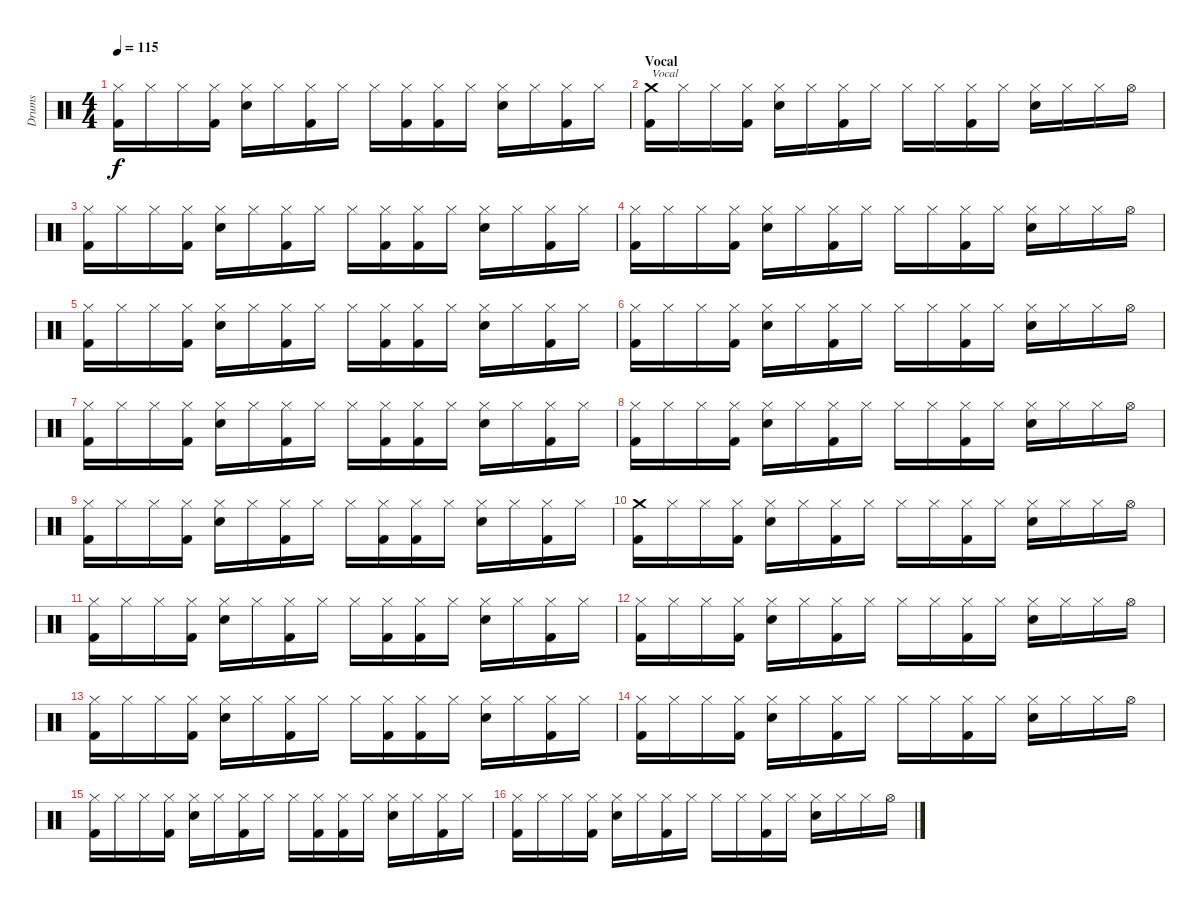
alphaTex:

\track ("Drums" "Drums") {instrument percussion}
\staff {score}
\articulation defaults
\ts (4 4)
\tempo 115
\clef neutral
\ks c
("Hi-Hat (closed)" "Kick (hit) 2").16{dy f} "Hi-Hat (closed)".16 "Hi-Hat (closed)".16 ("Hi-Hat (closed)" "Kick (hit) 2").16 ("Hi-Hat (closed)" "Electric Snare (hit)").16 "Hi-Hat (closed)".16 ("Hi-Hat (closed)" "Kick (hit) 2").16 "Hi-Hat (closed)".16 "Hi-Hat (closed)".16 ("Hi-Hat (closed)" "Kick (hit) 2").16 ("Hi-Hat (closed)" "Kick (hit) 2").16 "Hi-Hat (closed)".16 ("Hi-Hat (closed)" "Electric Snare (hit)").16 "Hi-Hat (closed)".16 ("Hi-Hat (closed)" "Kick (hit) 2").16 "Hi-Hat (closed)".16 |
\section ("" "Vocal")
("Crash medium (hit)" "Kick (hit) 2").16{txt "Vocal"} "Hi-Hat (closed)".16 "Hi-Hat (closed)".16 ("Hi-Hat (closed)" "Kick (hit) 2").16 ("Hi-Hat (closed)" "Electric Snare (hit)").16 "Hi-Hat (closed)".16 ("Hi-Hat (closed)" "Kick (hit) 2").16 "Hi-Hat (closed)".16 "Hi-Hat (closed)".16 "Hi-Hat (closed)".16 ("Hi-Hat (closed)" "Kick (hit) 2").16 "Hi-Hat (closed)".16 ("Hi-Hat (closed)" "Electric Snare (hit)").16 "Hi-Hat (closed)".16 "Hi-Hat (closed)".16 "Hi-Hat (open)".16 |
("Hi-Hat (closed)" "Kick (hit) 2").16 "Hi-Hat (closed)".16 "Hi-Hat (closed)".16 ("Hi-Hat (closed)" "Kick (hit) 2").16 ("Hi-Hat (closed)" "Electric Snare (hit)").16 "Hi-Hat (closed)".16 ("Hi-Hat (closed)" "Kick (hit) 2").16 "Hi-Hat (closed)".16 "Hi-Hat (closed)".16 ("Hi-Hat (closed)" "Kick (hit) 2").16 ("Hi-Hat (closed)" "Kick (hit) 2").16 "Hi-Hat (closed)".16 ("Hi-Hat (closed)" "Electric Snare (hit)").16 "Hi-Hat (closed)".16 ("Hi-Hat (closed)" "Kick (hit) 2").16 "Hi-Hat (closed)".16 |
("Hi-Hat (closed)" "Kick (hit) 2").16 "Hi-Hat (closed)".16 "Hi-Hat (closed)".16 ("Hi-Hat (closed)" "Kick (hit) 2").16 ("Hi-Hat (closed)" "Electric Snare (hit)").16 "Hi-Hat (closed)".16 ("Hi-Hat (closed)" "Kick (hit) 2").16 "Hi-Hat (closed)".16 "Hi-Hat (closed)".16 "Hi-Hat (closed)".16 ("Hi-Hat (closed)" "Kick (hit) 2").16 "Hi-Hat (closed)".16 ("Hi-Hat (closed)" "Electric Snare (hit)").16 "Hi-Hat (closed)".16 "Hi-Hat (closed)".16 "Hi-Hat (open)".16 |
("Hi-Hat (closed)" "Kick (hit) 2").16 "Hi-Hat (closed)".16 "Hi-Hat (closed)".16 ("Hi-Hat (closed)" "Kick (hit) 2").16 ("Hi-Hat (closed)" "Electric Snare (hit)").16 "Hi-Hat (closed)".16 ("Hi-Hat (closed)" "Kick (hit) 2").16 "Hi-Hat (closed)".16 "Hi-Hat (closed)".16 ("Hi-Hat (closed)" "Kick (hit) 2").16 ("Hi-Hat (closed)" "Kick (hit) 2").16 "Hi-Hat (closed)".16 ("Hi-Hat (closed)" "Electric Snare (hit)").16 "Hi-Hat (closed)".16 ("Hi-Hat (closed)" "Kick (hit) 2").16 "Hi-Hat (closed)".16 |
("Hi-Hat (closed)" "Kick (hit) 2").16 "Hi-Hat (closed)".16 "Hi-Hat (closed)".16 ("Hi-Hat (closed)" "Kick (hit) 2").16 ("Hi-Hat (closed)" "Electric Snare (hit)").16 "Hi-Hat (closed)".16 ("Hi-Hat (closed)" "Kick (hit) 2").16 "Hi-Hat (closed)".16 "Hi-Hat (closed)".16 "Hi-Hat (closed)".16 ("Hi-Hat (closed)" "Kick (hit) 2").16 "Hi-Hat (closed)".16 ("Hi-Hat (closed)" "Electric Snare (hit)").16 "Hi-Hat (closed)".16 "Hi-Hat (closed)".16 "Hi-Hat (open)".16 |
("Hi-Hat (closed)" "Kick (hit) 2").16 "Hi-Hat (closed)".16 "Hi-Hat (closed)".16 ("Hi-Hat (closed)" "Kick (hit) 2").16 ("Hi-Hat (closed)" "Electric Snare (hit)").16 "Hi-Hat (closed)".16 ("Hi-Hat (closed)" "Kick (hit) 2").16 "Hi-Hat (closed)".16 "Hi-Hat (closed)".16 ("Hi-Hat (closed)" "Kick (hit) 2").16 ("Hi-Hat (closed)" "Kick (hit) 2").16 "Hi-Hat (closed)".16 ("Hi-Hat (closed)" "Electric Snare (hit)").16 "Hi-Hat (closed)".16 ("Hi-Hat (closed)" "Kick (hit) 2").16 "Hi-Hat (closed)".16 |
("Hi-Hat (closed)" "Kick (hit) 2").16 "Hi-Hat (closed)".16 "Hi-Hat (closed)".16 ("Hi-Hat (closed)" "Kick (hit) 2").16 ("Hi-Hat (closed)" "Electric Snare (hit)").16 "Hi-Hat (closed)".16 ("Hi-Hat (closed)" "Kick (hit) 2").16 "Hi-Hat (closed)".16 "Hi-Hat (closed)".16 "Hi-Hat (closed)".16 ("Hi-Hat (closed)" "Kick (hit) 2").16 "Hi-Hat (closed)".16 ("Hi-Hat (closed)" "Electric Snare (hit)").16 "Hi-Hat (closed)".16 "Hi-Hat (closed)".16 "Hi-Hat (open)".16 |
("Hi-Hat (closed)" "Kick (hit) 2").16 "Hi-Hat (closed)".16 "Hi-Hat (closed)".16 ("Hi-Hat (closed)" "Kick (hit) 2").16 ("Hi-Hat (closed)" "Electric Snare (hit)").16 "Hi-Hat (closed)".16 ("Hi-Hat (closed)" "Kick (hit) 2").16 "Hi-Hat (closed)".16 "Hi-Hat (closed)".16 ("Hi-Hat (closed)" "Kick (hit) 2").16 ("Hi-Hat (closed)" "Kick (hit) 2").16 "Hi-Hat (closed)".16 ("Hi-Hat (closed)" "Electric Snare (hit)").16 "Hi-Hat (closed)".16 ("Hi-Hat (closed)" "Kick (hit) 2").16 "Hi-Hat (closed)".16 |
("Crash medium (hit)" "Kick (hit) 2").16 "Hi-Hat (closed)".16 "Hi-Hat (closed)".16 ("Hi-Hat (closed)" "Kick (hit) 2").16 ("Hi-Hat (closed)" "Electric Snare (hit)").16 "Hi-Hat (closed)".16 ("Hi-Hat (closed)" "Kick (hit) 2").16 "Hi-Hat (closed)".16 "Hi-Hat (closed)".16 "Hi-Hat (closed)".16 ("Hi-Hat (closed)" "Kick (hit) 2").16 "Hi-Hat (closed)".16 ("Hi-Hat (closed)" "Electric Snare (hit)").16 "Hi-Hat (closed)".16 "Hi-Hat (closed)".16 "Hi-Hat (open)".16 |
("Hi-Hat (closed)" "Kick (hit) 2").16 "Hi-Hat (closed)".16 "Hi-Hat (closed)".16 ("Hi-Hat (closed)" "Kick (hit) 2").16 ("Hi-Hat (closed)" "Electric Snare (hit)").16 "Hi-Hat (closed)".16 ("Hi-Hat (closed)" "Kick (hit) 2").16 "Hi-Hat (closed)".16 "Hi-Hat (closed)".16 ("Hi-Hat (closed)" "Kick (hit) 2").16 ("Hi-Hat (closed)" "Kick (hit) 2").16 "Hi-Hat (closed)".16 ("Hi-Hat (closed)" "Electric Snare (hit)").16 "Hi-Hat (closed)".16 ("Hi-Hat (closed)" "Kick (hit) 2").16 "Hi-Hat (closed)".16 |
("Hi-Hat (closed)" "Kick (hit) 2").16 "Hi-Hat (closed)".16 "Hi-Hat (closed)".16 ("Hi-Hat (closed)" "Kick (hit) 2").16 ("Hi-Hat (closed)" "Electric Snare (hit)").16 "Hi-Hat (closed)".16 ("Hi-Hat (closed)" "Kick (hit) 2").16 "Hi-Hat (closed)".16 "Hi-Hat (closed)".16 "Hi-Hat (closed)".16 ("Hi-Hat (closed)" "Kick (hit) 2").16 "Hi-Hat (closed)".16 ("Hi-Hat (closed)" "Electric Snare (hit)").16 "Hi-Hat (closed)".16 "Hi-Hat (closed)".16 "Hi-Hat (open)".16 |
("Hi-Hat (closed)" "Kick (hit) 2").16 "Hi-Hat (closed)".16 "Hi-Hat (closed)".16 ("Hi-Hat (closed)" "Kick (hit) 2").16 ("Hi-Hat (closed)" "Electric Snare (hit)").16 "Hi-Hat (closed)".16 ("Hi-Hat (closed)" "Kick (hit) 2").16 "Hi-Hat (closed)".16 "Hi-Hat (closed)".16 ("Hi-Hat (closed)" "Kick (hit) 2").16 ("Hi-Hat (closed)" "Kick (hit) 2").16 "Hi-Hat (closed)".16 ("Hi-Hat (closed)" "Electric Snare (hit)").16 "Hi-Hat (closed)".16 ("Hi-Hat (closed)" "Kick (hit) 2").16 "Hi-Hat (closed)".16 |
("Hi-Hat (closed)" "Kick (hit) 2").16 "Hi-Hat (closed)".16 "Hi-Hat (closed)".16 ("Hi-Hat (closed)" "Kick (hit) 2").16 ("Hi-Hat (closed)" "Electric Snare (hit)").16 "Hi-Hat (closed)".16 ("Hi-Hat (closed)" "Kick (hit) 2").16 "Hi-Hat (closed)".16 "Hi-Hat (closed)".16 "Hi-Hat (closed)".16 ("Hi-Hat (closed)" "Kick (hit) 2").16 "Hi-Hat (closed)".16 ("Hi-Hat (closed)" "Electric Snare (hit)").16 "Hi-Hat (closed)".16 "Hi-Hat (closed)".16 "Hi-Hat (open)".16 |
("Hi-Hat (closed)" "Kick (hit) 2").16 "Hi-Hat (closed)".16 "Hi-Hat (closed)".16 ("Hi-Hat (closed)" "Kick (hit) 2").16 ("Hi-Hat (closed)" "Electric Snare (hit)").16 "Hi-Hat (closed)".16 ("Hi-Hat (closed)" "Kick (hit) 2").16 "Hi-Hat (closed)".16 "Hi-Hat (closed)".16 ("Hi-Hat (closed)" "Kick (hit) 2").16 ("Hi-Hat (closed)" "Kick (hit) 2").16 "Hi-Hat (closed)".16 ("Hi-Hat (closed)" "Electric Snare (hit)").16 "Hi-Hat (closed)".16 ("Hi-Hat (closed)" "Kick (hit) 2").16 "Hi-Hat (closed)".16 |
("Hi-Hat (closed)" "Kick (hit) 2").16 "Hi-Hat (closed)".16 "Hi-Hat (closed)".16 ("Hi-Hat (closed)" "Kick (hit) 2").16 ("Hi-Hat (closed)" "Electric Snare (hit)").16 "Hi-Hat (closed)".16 ("Hi-Hat (closed)" "Kick (hit) 2").16 "Hi-Hat (closed)".16 "Hi-Hat (closed)".16 "Hi-Hat (closed)".16 ("Hi-Hat (closed)" "Kick (hit) 2").16 "Hi-Hat (closed)".16 ("Hi-Hat (closed)" "Electric Snare (hit)").16 "Hi-Hat (closed)".16 "Hi-Hat (closed)".16 "Hi-Hat (open)".16
